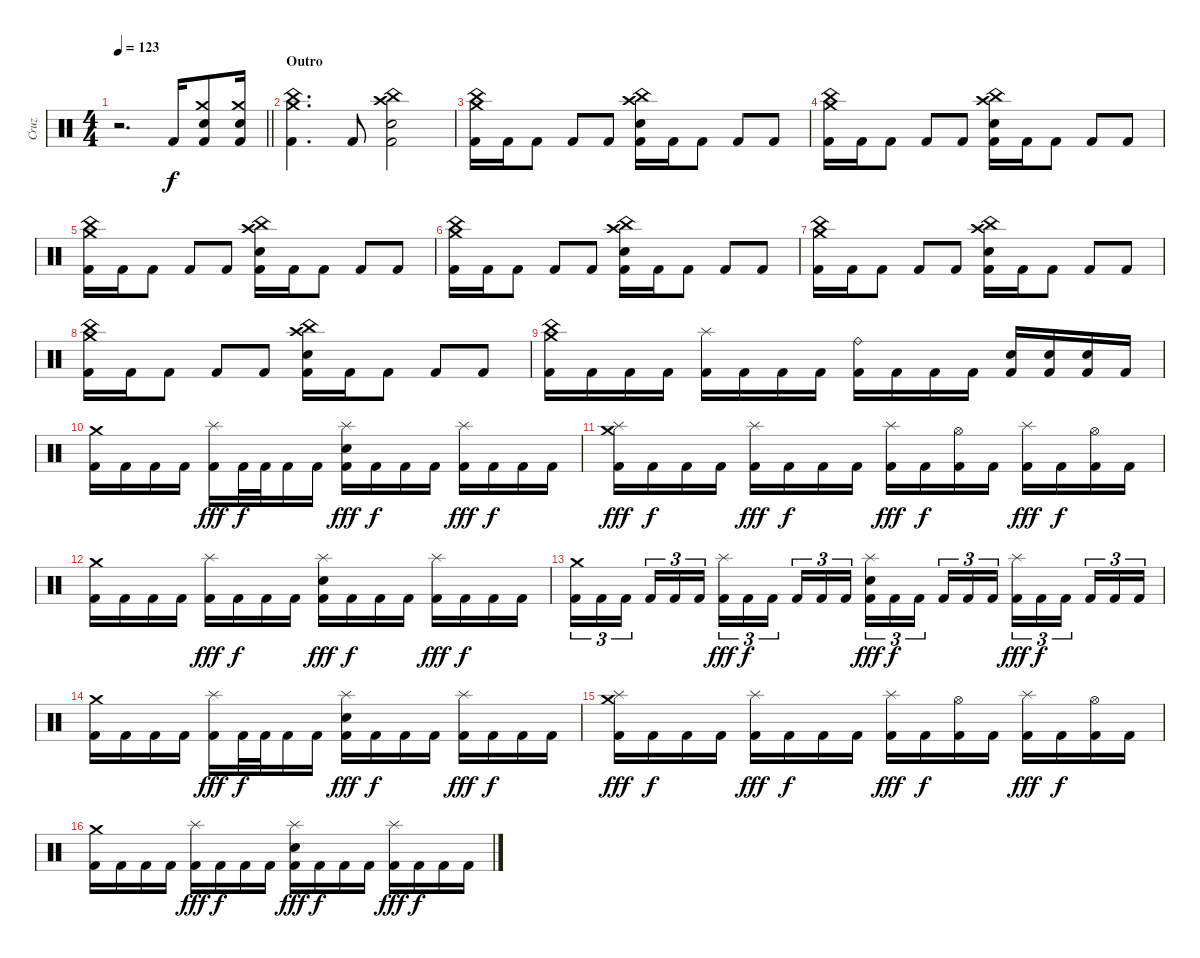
\track ("Cruz" "Cruz") {instrument percussion}
\staff {score}
\articulation defaults
\ts (4 4)
\tempo 123
\clef neutral
\barLineRight lightlight
\ks c
r.2{d dy f} "Kick (hit) 2".16 ("Crash medium (hit)" "Snare (hit) 2" "Kick (hit) 2").8 ("Crash medium (hit)" "Snare (hit) 2" "Kick (hit) 2").16 |
\section ("" "Outro")
("Crash medium (hit)" "China (hit)" "Kick (hit) 2").4{d} "Kick (hit) 2".8 ("Crash high (hit)" "China (hit)" "Snare (hit) 2" "Kick (hit) 2").2 |
("Crash medium (hit)" "China (hit)" "Kick (hit) 2").16 "Kick (hit) 2".16 "Kick (hit) 2".8 "Kick (hit) 2".8 "Kick (hit) 2".8 ("Crash high (hit)" "China (hit)" "Snare (hit) 2" "Kick (hit) 2").16 "Kick (hit) 2".16 "Kick (hit) 2".8 "Kick (hit) 2".8 "Kick (hit) 2".8 |
("Crash medium (hit)" "China (hit)" "Kick (hit) 2").16 "Kick (hit) 2".16 "Kick (hit) 2".8 "Kick (hit) 2".8 "Kick (hit) 2".8 ("Crash high (hit)" "China (hit)" "Snare (hit) 2" "Kick (hit) 2").16 "Kick (hit) 2".16 "Kick (hit) 2".8 "Kick (hit) 2".8 "Kick (hit) 2".8 |
("Crash medium (hit)" "China (hit)" "Kick (hit) 2").16 "Kick (hit) 2".16 "Kick (hit) 2".8 "Kick (hit) 2".8 "Kick (hit) 2".8 ("Crash high (hit)" "China (hit)" "Snare (hit) 2" "Kick (hit) 2").16 "Kick (hit) 2".16 "Kick (hit) 2".8 "Kick (hit) 2".8 "Kick (hit) 2".8 |
("Crash medium (hit)" "China (hit)" "Kick (hit) 2").16 "Kick (hit) 2".16 "Kick (hit) 2".8 "Kick (hit) 2".8 "Kick (hit) 2".8 ("Crash high (hit)" "China (hit)" "Snare (hit) 2" "Kick (hit) 2").16 "Kick (hit) 2".16 "Kick (hit) 2".8 "Kick (hit) 2".8 "Kick (hit) 2".8 |
("Crash medium (hit)" "China (hit)" "Kick (hit) 2").16 "Kick (hit) 2".16 "Kick (hit) 2".8 "Kick (hit) 2".8 "Kick (hit) 2".8 ("Crash high (hit)" "China (hit)" "Snare (hit) 2" "Kick (hit) 2").16 "Kick (hit) 2".16 "Kick (hit) 2".8 "Kick (hit) 2".8 "Kick (hit) 2".8 |
("Crash medium (hit)" "China (hit)" "Kick (hit) 2").16 "Kick (hit) 2".16 "Kick (hit) 2".8 "Kick (hit) 2".8 "Kick (hit) 2".8 ("Crash high (hit)" "China (hit)" "Snare (hit) 2" "Kick (hit) 2").16 "Kick (hit) 2".16 "Kick (hit) 2".8 "Kick (hit) 2".8 "Kick (hit) 2".8 |
("Crash medium (hit)" "China (hit)" "Kick (hit) 2").16 "Kick (hit) 2".16 "Kick (hit) 2".16 "Kick (hit) 2".16 ("Splash (hit)" "Kick (hit) 2").16 "Kick (hit) 2".16 "Kick (hit) 2".16 "Kick (hit) 2".16 ("Ride (bell)" "Kick (hit) 2").16 "Kick (hit) 2".16 "Kick (hit) 2".16 "Kick (hit) 2".16 ("Snare (hit) 2" "Kick (hit) 2").16 ("Snare (hit) 2" "Kick (hit) 2").16 ("Snare (hit) 2" "Kick (hit) 2").16 "Kick (hit) 2".16 |
("Crash medium (hit)" "Kick (hit) 2").16 "Kick (hit) 2".16 "Kick (hit) 2".16 "Kick (hit) 2".16 ("Splash (hit)" "Kick (hit) 2").16{dy fff} "Kick (hit) 2".32{dy f} "Kick (hit) 2".32 "Kick (hit) 2".16 "Kick (hit) 2".16 ("Splash (hit)" "Snare (hit) 2" "Kick (hit) 2").16{dy fff} "Kick (hit) 2".16{dy f} "Kick (hit) 2".16 "Kick (hit) 2".16 ("Splash (hit)" "Kick (hit) 2").16{dy fff} "Kick (hit) 2".16{dy f} "Kick (hit) 2".16 "Kick (hit) 2".16 |
("Crash medium (hit)" "Splash (hit)" "Kick (hit) 2").16{dy fff} "Kick (hit) 2".16{dy f} "Kick (hit) 2".16 "Kick (hit) 2".16 ("Splash (hit)" "Kick (hit) 2").16{dy fff} "Kick (hit) 2".16{dy f} "Kick (hit) 2".16 "Kick (hit) 2".16 ("Splash (hit)" "Kick (hit) 2").16{dy fff} "Kick (hit) 2".16{dy f} ("Hi-Hat (open)" "Kick (hit) 2").16 "Kick (hit) 2".16 ("Splash (hit)" "Kick (hit) 2").16{dy fff} "Kick (hit) 2".16{dy f} ("Hi-Hat (open)" "Kick (hit) 2").16 "Kick (hit) 2".16 |
("Crash medium (hit)" "Kick (hit) 2").16 "Kick (hit) 2".16 "Kick (hit) 2".16 "Kick (hit) 2".16 ("Splash (hit)" "Kick (hit) 2").16{dy fff} "Kick (hit) 2".16{dy f} "Kick (hit) 2".16 "Kick (hit) 2".16 ("Splash (hit)" "Snare (hit) 2" "Kick (hit) 2").16{dy fff} "Kick (hit) 2".16{dy f} "Kick (hit) 2".16 "Kick (hit) 2".16 ("Splash (hit)" "Kick (hit) 2").16{dy fff} "Kick (hit) 2".16{dy f} "Kick (hit) 2".16 "Kick (hit) 2".16 |
("Crash medium (hit)" "Kick (hit) 2").16{tu (3 2)} "Kick (hit) 2".16{tu (3 2)} "Kick (hit) 2".16{tu (3 2) beam splitsecondary} "Kick (hit) 2".16{tu (3 2)} "Kick (hit) 2".16{tu (3 2)} "Kick (hit) 2".16{tu (3 2)} ("Splash (hit)" "Kick (hit) 2").16{tu (3 2) dy fff} "Kick (hit) 2".16{tu (3 2) dy f} "Kick (hit) 2".16{tu (3 2) beam splitsecondary} "Kick (hit) 2".16{tu (3 2)} "Kick (hit) 2".16{tu (3 2)} "Kick (hit) 2".16{tu (3 2)} ("Splash (hit)" "Snare (hit) 2" "Kick (hit) 2").16{tu (3 2) dy fff} "Kick (hit) 2".16{tu (3 2) dy f} "Kick (hit) 2".16{tu (3 2) beam splitsecondary} "Kick (hit) 2".16{tu (3 2)} "Kick (hit) 2".16{tu (3 2)} "Kick (hit) 2".16{tu (3 2)} ("Splash (hit)" "Kick (hit) 2").16{tu (3 2) dy fff} "Kick (hit) 2".16{tu (3 2) dy f} "Kick (hit) 2".16{tu (3 2) beam splitsecondary} "Kick (hit) 2".16{tu (3 2)} "Kick (hit) 2".16{tu (3 2)} "Kick (hit) 2".16{tu (3 2)} |
("Crash medium (hit)" "Kick (hit) 2").16 "Kick (hit) 2".16 "Kick (hit) 2".16 "Kick (hit) 2".16 ("Splash (hit)" "Kick (hit) 2").16{dy fff} "Kick (hit) 2".32{dy f} "Kick (hit) 2".32 "Kick (hit) 2".16 "Kick (hit) 2".16 ("Splash (hit)" "Snare (hit) 2" "Kick (hit) 2").16{dy fff} "Kick (hit) 2".16{dy f} "Kick (hit) 2".16 "Kick (hit) 2".16 ("Splash (hit)" "Kick (hit) 2").16{dy fff} "Kick (hit) 2".16{dy f} "Kick (hit) 2".16 "Kick (hit) 2".16 |
("Crash medium (hit)" "Splash (hit)" "Kick (hit) 2").16{dy fff} "Kick (hit) 2".16{dy f} "Kick (hit) 2".16 "Kick (hit) 2".16 ("Splash (hit)" "Kick (hit) 2").16{dy fff} "Kick (hit) 2".16{dy f} "Kick (hit) 2".16 "Kick (hit) 2".16 ("Splash (hit)" "Kick (hit) 2").16{dy fff} "Kick (hit) 2".16{dy f} ("Hi-Hat (open)" "Kick (hit) 2").16 "Kick (hit) 2".16 ("Splash (hit)" "Kick (hit) 2").16{dy fff} "Kick (hit) 2".16{dy f} ("Hi-Hat (open)" "Kick (hit) 2").16 "Kick (hit) 2".16 |
("Crash medium (hit)" "Kick (hit) 2").16 "Kick (hit) 2".16 "Kick (hit) 2".16 "Kick (hit) 2".16 ("Splash (hit)" "Kick (hit) 2").16{dy fff} "Kick (hit) 2".16{dy f} "Kick (hit) 2".16 "Kick (hit) 2".16 ("Splash (hit)" "Snare (hit) 2" "Kick (hit) 2").16{dy fff} "Kick (hit) 2".16{dy f} "Kick (hit) 2".16 "Kick (hit) 2".16 ("Splash (hit)" "Kick (hit) 2").16{dy fff} "Kick (hit) 2".16{dy f} "Kick (hit) 2".16 "Kick (hit) 2".16
